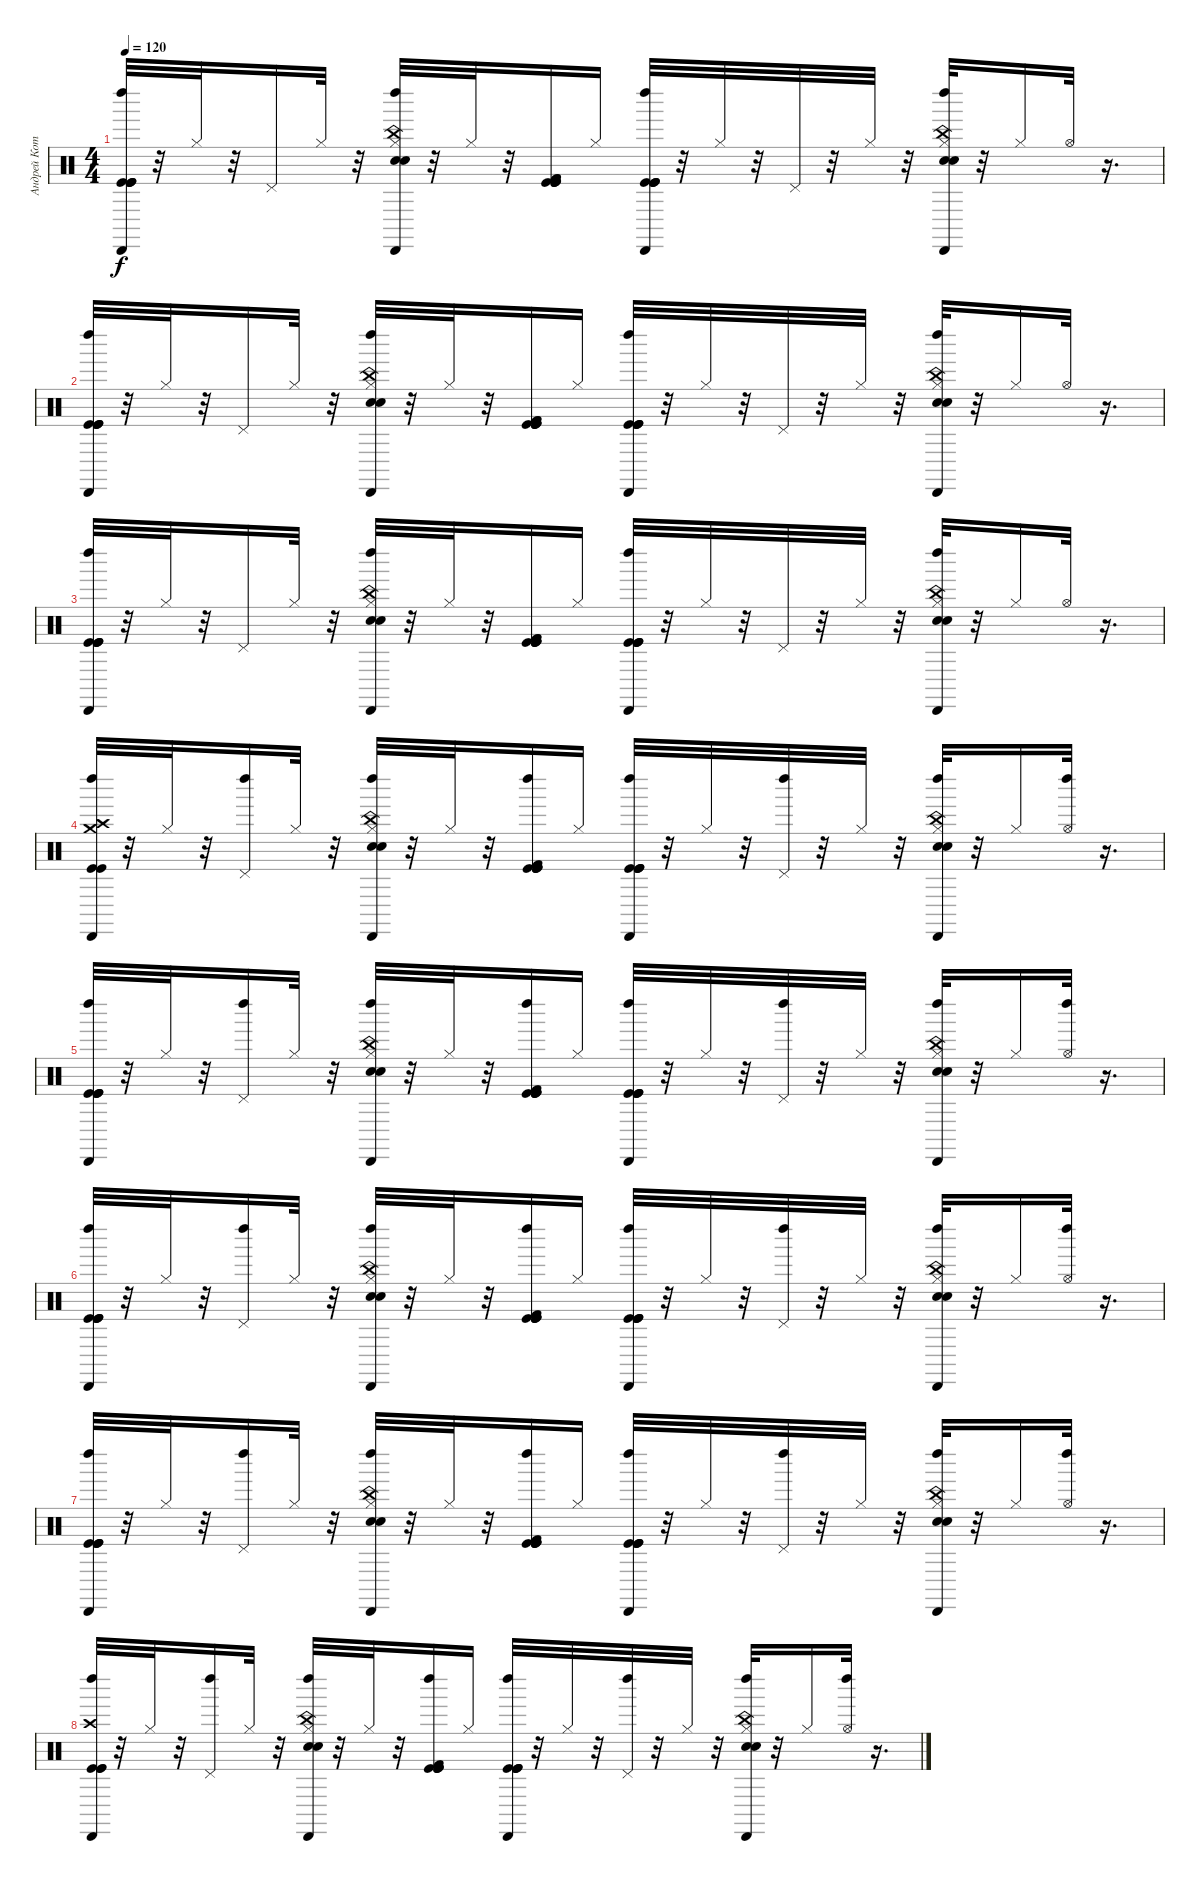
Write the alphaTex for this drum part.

\track ("Андрей Котов " "Андрей Кот") {instrument percussion}
\staff {score}
\articulation defaults
\ts (4 4)
\tempo 120
\clef neutral
\ks c
("Cabasa (hit)" "Left Maraca (hit)" "Kick (hit)" "Kick (hit)" "Kick (hit)" "Kick (hit)").32{dy f} r.32 "Hi-Hat (closed)".32 r.32 "Pedal Hi-Hat (hit)".16 "Hi-Hat (closed)".32 r.32 ("Cabasa (hit)" "Left Maraca (hit)" "China (hit)" "Electric Snare (hit)" "Hand Clap (hit)" "Hi-Hat (closed)").32 r.32 "Hi-Hat (closed)".32 r.32 ("Kick (hit)" "Kick (hit)" "Kick (hit)" "Kick (hit)" "Kick (hit) 2" "Kick (hit) 2").16 "Hi-Hat (closed)".16 ("Cabasa (hit)" "Left Maraca (hit)" "Kick (hit)" "Kick (hit)" "Kick (hit)" "Kick (hit)").32 r.32 "Hi-Hat (closed)".32 r.32 "Pedal Hi-Hat (hit)".32 r.32 "Hi-Hat (closed)".32 r.32 ("Cabasa (hit)" "Left Maraca (hit)" "China (hit)" "Electric Snare (hit)" "Hand Clap (hit)" "Hi-Hat (closed)").32 r.32 "Hi-Hat (closed)".16 "Hi-Hat (open)".32 r.16{d} |
("Cabasa (hit)" "Left Maraca (hit)" "Kick (hit)" "Kick (hit)" "Kick (hit)" "Kick (hit)").32 r.32 "Hi-Hat (closed)".32 r.32 "Pedal Hi-Hat (hit)".16 "Hi-Hat (closed)".32 r.32 ("Cabasa (hit)" "Left Maraca (hit)" "China (hit)" "Electric Snare (hit)" "Hand Clap (hit)" "Hi-Hat (closed)").32 r.32 "Hi-Hat (closed)".32 r.32 ("Kick (hit)" "Kick (hit)" "Kick (hit)" "Kick (hit)" "Kick (hit) 2" "Kick (hit) 2").16 "Hi-Hat (closed)".16 ("Cabasa (hit)" "Left Maraca (hit)" "Kick (hit)" "Kick (hit)" "Kick (hit)" "Kick (hit)").32 r.32 "Hi-Hat (closed)".32 r.32 "Pedal Hi-Hat (hit)".32 r.32 "Hi-Hat (closed)".32 r.32 ("Cabasa (hit)" "Left Maraca (hit)" "China (hit)" "Electric Snare (hit)" "Hand Clap (hit)" "Hi-Hat (closed)").32 r.32 "Hi-Hat (closed)".16 "Hi-Hat (open)".32 r.16{d} |
("Cabasa (hit)" "Left Maraca (hit)" "Kick (hit)" "Kick (hit)" "Kick (hit)" "Kick (hit)").32 r.32 "Hi-Hat (closed)".32 r.32 "Pedal Hi-Hat (hit)".16 "Hi-Hat (closed)".32 r.32 ("Cabasa (hit)" "Left Maraca (hit)" "China (hit)" "Electric Snare (hit)" "Hand Clap (hit)" "Hi-Hat (closed)").32 r.32 "Hi-Hat (closed)".32 r.32 ("Kick (hit)" "Kick (hit)" "Kick (hit)" "Kick (hit)" "Kick (hit) 2" "Kick (hit) 2").16 "Hi-Hat (closed)".16 ("Cabasa (hit)" "Left Maraca (hit)" "Kick (hit)" "Kick (hit)" "Kick (hit)" "Kick (hit)").32 r.32 "Hi-Hat (closed)".32 r.32 "Pedal Hi-Hat (hit)".32 r.32 "Hi-Hat (closed)".32 r.32 ("Cabasa (hit)" "Left Maraca (hit)" "China (hit)" "Electric Snare (hit)" "Hand Clap (hit)" "Hi-Hat (closed)").32 r.32 "Hi-Hat (closed)".16 "Hi-Hat (open)".32 r.16{d} |
("Left Maraca (hit)" "Cabasa (hit)" "Crash medium (hit)" "Crash high (hit)" "Kick (hit)" "Kick (hit)").32 r.32 "Hi-Hat (closed)".32 r.32 ("Left Maraca (hit)" "Pedal Hi-Hat (hit)").16 "Hi-Hat (closed)".32 r.32 ("Left Maraca (hit)" "Cabasa (hit)" "China (hit)" "Electric Snare (hit)" "Hand Clap (hit)" "Hi-Hat (closed)").32 r.32 "Hi-Hat (closed)".32 r.32 ("Left Maraca (hit)" "Kick (hit)" "Kick (hit)" "Kick (hit)" "Kick (hit)" "Kick (hit) 2").16 "Hi-Hat (closed)".16 ("Left Maraca (hit)" "Cabasa (hit)" "Kick (hit)" "Kick (hit)" "Kick (hit)" "Kick (hit)").32 r.32 "Hi-Hat (closed)".32 r.32 ("Left Maraca (hit)" "Pedal Hi-Hat (hit)").32 r.32 "Hi-Hat (closed)".32 r.32 ("Left Maraca (hit)" "Cabasa (hit)" "China (hit)" "Electric Snare (hit)" "Hand Clap (hit)" "Hi-Hat (closed)").32 r.32 "Hi-Hat (closed)".16 ("Left Maraca (hit)" "Hi-Hat (open)").32 r.16{d} |
("Left Maraca (hit)" "Cabasa (hit)" "Kick (hit)" "Kick (hit)" "Kick (hit)" "Kick (hit)").32 r.32 "Hi-Hat (closed)".32 r.32 ("Left Maraca (hit)" "Pedal Hi-Hat (hit)").16 "Hi-Hat (closed)".32 r.32 ("Left Maraca (hit)" "Cabasa (hit)" "China (hit)" "Electric Snare (hit)" "Hand Clap (hit)" "Hi-Hat (closed)").32 r.32 "Hi-Hat (closed)".32 r.32 ("Left Maraca (hit)" "Kick (hit)" "Kick (hit)" "Kick (hit)" "Kick (hit)" "Kick (hit) 2").16 "Hi-Hat (closed)".16 ("Left Maraca (hit)" "Cabasa (hit)" "Kick (hit)" "Kick (hit)" "Kick (hit)" "Kick (hit)").32 r.32 "Hi-Hat (closed)".32 r.32 ("Left Maraca (hit)" "Pedal Hi-Hat (hit)").32 r.32 "Hi-Hat (closed)".32 r.32 ("Left Maraca (hit)" "Cabasa (hit)" "China (hit)" "Electric Snare (hit)" "Hand Clap (hit)" "Hi-Hat (closed)").32 r.32 "Hi-Hat (closed)".16 ("Left Maraca (hit)" "Hi-Hat (open)").32 r.16{d} |
("Left Maraca (hit)" "Cabasa (hit)" "Kick (hit)" "Kick (hit)" "Kick (hit)" "Kick (hit)").32 r.32 "Hi-Hat (closed)".32 r.32 ("Left Maraca (hit)" "Pedal Hi-Hat (hit)").16 "Hi-Hat (closed)".32 r.32 ("Left Maraca (hit)" "Cabasa (hit)" "China (hit)" "Electric Snare (hit)" "Hand Clap (hit)" "Hi-Hat (closed)").32 r.32 "Hi-Hat (closed)".32 r.32 ("Left Maraca (hit)" "Kick (hit)" "Kick (hit)" "Kick (hit)" "Kick (hit)" "Kick (hit) 2").16 "Hi-Hat (closed)".16 ("Left Maraca (hit)" "Cabasa (hit)" "Kick (hit)" "Kick (hit)" "Kick (hit)" "Kick (hit)").32 r.32 "Hi-Hat (closed)".32 r.32 ("Left Maraca (hit)" "Pedal Hi-Hat (hit)").32 r.32 "Hi-Hat (closed)".32 r.32 ("Left Maraca (hit)" "Cabasa (hit)" "China (hit)" "Electric Snare (hit)" "Hand Clap (hit)" "Hi-Hat (closed)").32 r.32 "Hi-Hat (closed)".16 ("Left Maraca (hit)" "Hi-Hat (open)").32 r.16{d} |
("Left Maraca (hit)" "Cabasa (hit)" "Kick (hit)" "Kick (hit)" "Kick (hit)" "Kick (hit)").32 r.32 "Hi-Hat (closed)".32 r.32 ("Left Maraca (hit)" "Pedal Hi-Hat (hit)").16 "Hi-Hat (closed)".32 r.32 ("Left Maraca (hit)" "Cabasa (hit)" "China (hit)" "Electric Snare (hit)" "Hand Clap (hit)" "Hi-Hat (closed)").32 r.32 "Hi-Hat (closed)".32 r.32 ("Left Maraca (hit)" "Kick (hit)" "Kick (hit)" "Kick (hit)" "Kick (hit)" "Kick (hit) 2").16 "Hi-Hat (closed)".16 ("Left Maraca (hit)" "Cabasa (hit)" "Kick (hit)" "Kick (hit)" "Kick (hit)" "Kick (hit)").32 r.32 "Hi-Hat (closed)".32 r.32 ("Left Maraca (hit)" "Pedal Hi-Hat (hit)").32 r.32 "Hi-Hat (closed)".32 r.32 ("Left Maraca (hit)" "Cabasa (hit)" "China (hit)" "Electric Snare (hit)" "Hand Clap (hit)" "Hi-Hat (closed)").32 r.32 "Hi-Hat (closed)".16 ("Left Maraca (hit)" "Hi-Hat (open)").32 r.16{d} |
("Left Maraca (hit)" "Cabasa (hit)" "Crash high (hit)" "Kick (hit)" "Kick (hit)" "Kick (hit)").32 r.32 "Hi-Hat (closed)".32 r.32 ("Left Maraca (hit)" "Pedal Hi-Hat (hit)").16 "Hi-Hat (closed)".32 r.32 ("Left Maraca (hit)" "Cabasa (hit)" "China (hit)" "Electric Snare (hit)" "Hand Clap (hit)" "Hi-Hat (closed)").32 r.32 "Hi-Hat (closed)".32 r.32 ("Left Maraca (hit)" "Kick (hit)" "Kick (hit)" "Kick (hit)" "Kick (hit)" "Kick (hit) 2").16 "Hi-Hat (closed)".16 ("Left Maraca (hit)" "Cabasa (hit)" "Kick (hit)" "Kick (hit)" "Kick (hit)" "Kick (hit)").32 r.32 "Hi-Hat (closed)".32 r.32 ("Left Maraca (hit)" "Pedal Hi-Hat (hit)").32 r.32 "Hi-Hat (closed)".32 r.32 ("Left Maraca (hit)" "Cabasa (hit)" "China (hit)" "Electric Snare (hit)" "Hand Clap (hit)" "Hi-Hat (closed)").32 r.32 "Hi-Hat (closed)".16 ("Left Maraca (hit)" "Hi-Hat (open)").32 r.16{d}
